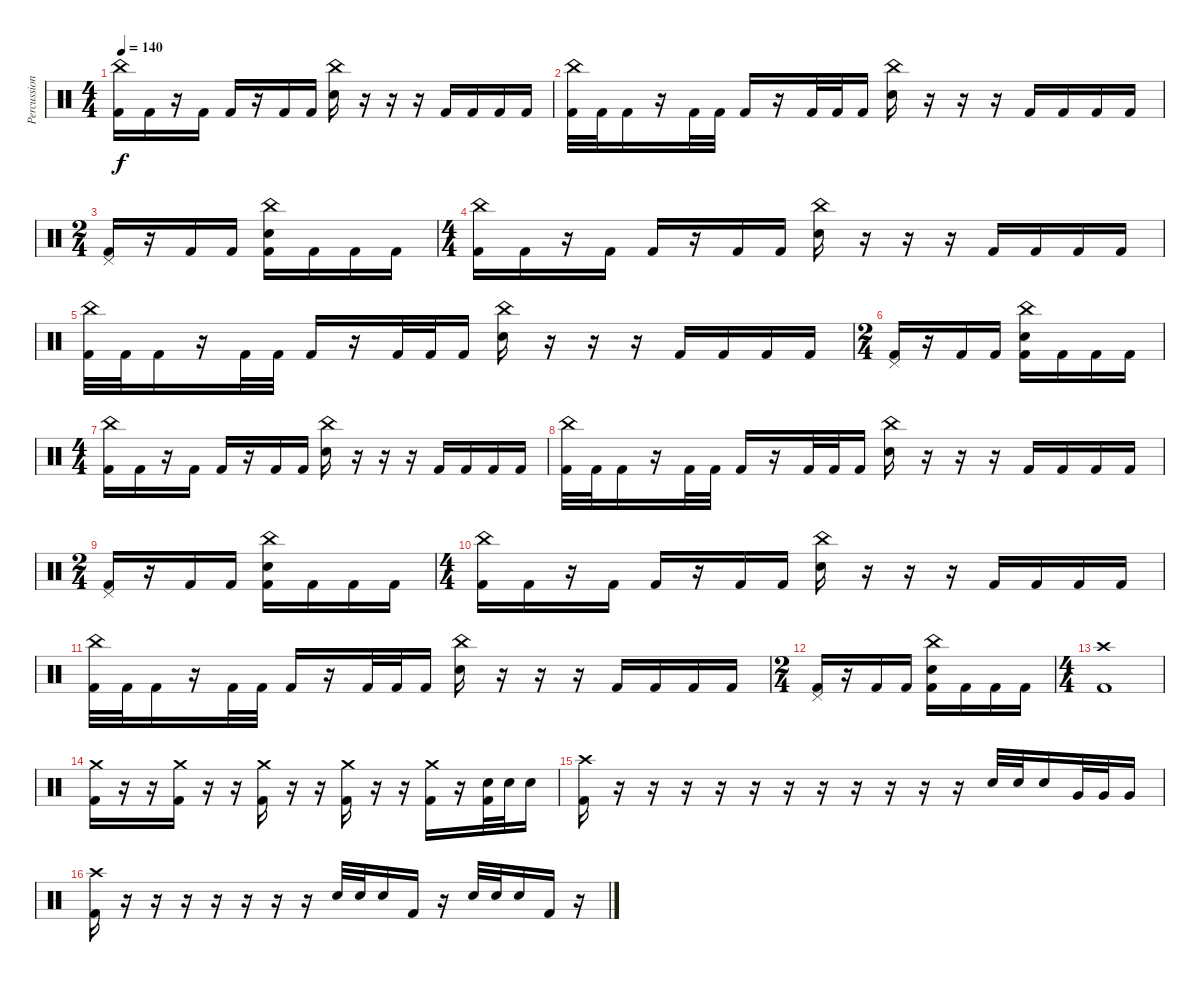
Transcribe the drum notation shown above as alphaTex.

\track ("Percussion" "Percussion") {instrument percussion}
\staff {score}
\articulation defaults
\ts (4 4)
\tempo 140
\clef neutral
\ks c
("China (hit)" "Kick (hit) 2").16{dy f} "Kick (hit) 2".16 r.16 "Kick (hit) 2".16 "Kick (hit) 2".16 r.16 "Kick (hit) 2".16 "Kick (hit) 2".16 ("China (hit)" "Snare (hit) 2").16 r.16 r.16 r.16 "Kick (hit) 2".16 "Kick (hit) 2".16 "Kick (hit) 2".16 "Kick (hit) 2".16 |
("China (hit)" "Kick (hit) 2").32 "Kick (hit) 2".32 "Kick (hit) 2".16 r.16 "Kick (hit) 2".32 "Kick (hit) 2".32 "Kick (hit) 2".16 r.16 "Kick (hit) 2".32 "Kick (hit) 2".32 "Kick (hit) 2".16 ("China (hit)" "Snare (hit) 2").16 r.16 r.16 r.16 "Kick (hit) 2".16 "Kick (hit) 2".16 "Kick (hit) 2".16 "Kick (hit) 2".16 |
\ts (2 4)
("Pedal Hi-Hat (hit)" "Kick (hit) 2").16 r.16 "Kick (hit) 2".16 "Kick (hit) 2".16 ("China (hit)" "Snare (hit) 2" "Kick (hit) 2").16 "Kick (hit) 2".16 "Kick (hit) 2".16 "Kick (hit) 2".16 |
\ts (4 4)
("China (hit)" "Kick (hit) 2").16 "Kick (hit) 2".16 r.16 "Kick (hit) 2".16 "Kick (hit) 2".16 r.16 "Kick (hit) 2".16 "Kick (hit) 2".16 ("China (hit)" "Snare (hit) 2").16 r.16 r.16 r.16 "Kick (hit) 2".16 "Kick (hit) 2".16 "Kick (hit) 2".16 "Kick (hit) 2".16 |
("China (hit)" "Kick (hit) 2").32 "Kick (hit) 2".32 "Kick (hit) 2".16 r.16 "Kick (hit) 2".32 "Kick (hit) 2".32 "Kick (hit) 2".16 r.16 "Kick (hit) 2".32 "Kick (hit) 2".32 "Kick (hit) 2".16 ("China (hit)" "Snare (hit) 2").16 r.16 r.16 r.16 "Kick (hit) 2".16 "Kick (hit) 2".16 "Kick (hit) 2".16 "Kick (hit) 2".16 |
\ts (2 4)
("Pedal Hi-Hat (hit)" "Kick (hit) 2").16 r.16 "Kick (hit) 2".16 "Kick (hit) 2".16 ("China (hit)" "Snare (hit) 2" "Kick (hit) 2").16 "Kick (hit) 2".16 "Kick (hit) 2".16 "Kick (hit) 2".16 |
\ts (4 4)
("China (hit)" "Kick (hit) 2").16 "Kick (hit) 2".16 r.16 "Kick (hit) 2".16 "Kick (hit) 2".16 r.16 "Kick (hit) 2".16 "Kick (hit) 2".16 ("China (hit)" "Snare (hit) 2").16 r.16 r.16 r.16 "Kick (hit) 2".16 "Kick (hit) 2".16 "Kick (hit) 2".16 "Kick (hit) 2".16 |
("China (hit)" "Kick (hit) 2").32 "Kick (hit) 2".32 "Kick (hit) 2".16 r.16 "Kick (hit) 2".32 "Kick (hit) 2".32 "Kick (hit) 2".16 r.16 "Kick (hit) 2".32 "Kick (hit) 2".32 "Kick (hit) 2".16 ("China (hit)" "Snare (hit) 2").16 r.16 r.16 r.16 "Kick (hit) 2".16 "Kick (hit) 2".16 "Kick (hit) 2".16 "Kick (hit) 2".16 |
\ts (2 4)
("Pedal Hi-Hat (hit)" "Kick (hit) 2").16 r.16 "Kick (hit) 2".16 "Kick (hit) 2".16 ("China (hit)" "Snare (hit) 2" "Kick (hit) 2").16 "Kick (hit) 2".16 "Kick (hit) 2".16 "Kick (hit) 2".16 |
\ts (4 4)
("China (hit)" "Kick (hit) 2").16 "Kick (hit) 2".16 r.16 "Kick (hit) 2".16 "Kick (hit) 2".16 r.16 "Kick (hit) 2".16 "Kick (hit) 2".16 ("China (hit)" "Snare (hit) 2").16 r.16 r.16 r.16 "Kick (hit) 2".16 "Kick (hit) 2".16 "Kick (hit) 2".16 "Kick (hit) 2".16 |
("China (hit)" "Kick (hit) 2").32 "Kick (hit) 2".32 "Kick (hit) 2".16 r.16 "Kick (hit) 2".32 "Kick (hit) 2".32 "Kick (hit) 2".16 r.16 "Kick (hit) 2".32 "Kick (hit) 2".32 "Kick (hit) 2".16 ("China (hit)" "Snare (hit) 2").16 r.16 r.16 r.16 "Kick (hit) 2".16 "Kick (hit) 2".16 "Kick (hit) 2".16 "Kick (hit) 2".16 |
\ts (2 4)
("Pedal Hi-Hat (hit)" "Kick (hit) 2").16 r.16 "Kick (hit) 2".16 "Kick (hit) 2".16 ("China (hit)" "Snare (hit) 2" "Kick (hit) 2").16 "Kick (hit) 2".16 "Kick (hit) 2".16 "Kick (hit) 2".16 |
\ts (4 4)
("Crash high (hit)" "Kick (hit) 2").1 |
("Crash medium (hit)" "Kick (hit) 2").16 r.16 r.16 ("Crash medium (hit)" "Kick (hit) 2").16 r.16 r.16 ("Crash medium (hit)" "Kick (hit) 2").16 r.16 r.16 ("Crash medium (hit)" "Kick (hit) 2").16 r.16 r.16 ("Crash medium (hit)" "Kick (hit) 2").16 r.16 ("Snare (hit) 2" "Kick (hit) 2").32 "Snare (hit) 2".32 "Snare (hit) 2".16 |
("Crash high (hit)" "Kick (hit) 2").16 r.16 r.16 r.16 r.16 r.16 r.16 r.16 r.16 r.16 r.16 r.16 "Snare (hit) 2".32 "Snare (hit) 2".32 "Snare (hit) 2".16 "Very Low Tom (hit)".32 "Very Low Tom (hit)".32 "Very Low Tom (hit)".16 |
("Crash high (hit)" "Kick (hit) 2").16 r.16 r.16 r.16 r.16 r.16 r.16 r.16 "Snare (hit) 2".32 "Snare (hit) 2".32 "Snare (hit) 2".16 "Kick (hit) 2".16 r.16 "Snare (hit) 2".32 "Snare (hit) 2".32 "Snare (hit) 2".16 "Kick (hit) 2".16 r.16
